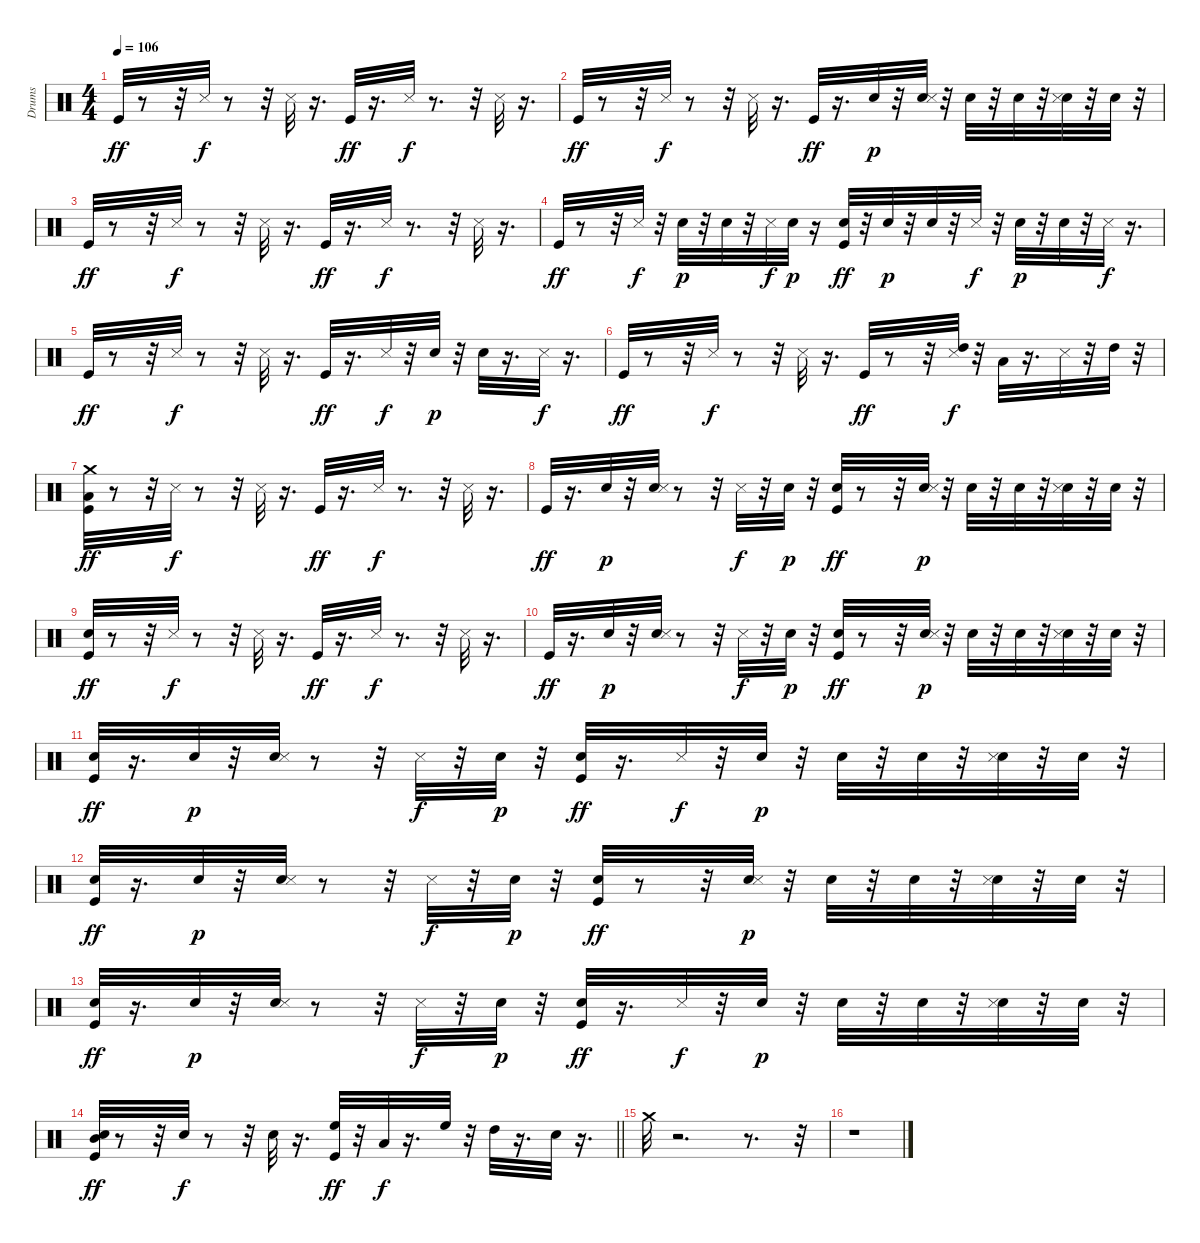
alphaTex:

\track ("Drums" "Drums") {instrument percussion}
\staff {score}
\articulation defaults
\ts (4 4)
\tempo 106
\clef neutral
\ks c "Kick (hit)".32{dy ff}
r.8 r.32 "Snare (side stick) 3".32{dy f} r.8 r.32 "Snare (side stick) 3".32 r.16{d} "Kick (hit)".32{dy ff} r.16{d} "Snare (side stick) 3".32{dy f} r.8{d} r.32 "Snare (side stick) 3".32 r.16{d} |
"Kick (hit)".32{dy ff} r.8 r.32 "Snare (side stick) 3".32{dy f} r.8 r.32 "Snare (side stick) 3".32 r.16{d} "Kick (hit)".32{dy ff} r.16{d} "Snare (hit) 2".32{dy p} r.32 ("Snare (hit) 2" "Snare (side stick) 3").32 r.32 "Snare (hit) 2".32 r.32 "Snare (hit) 2".32 r.32 ("Snare (hit) 2" "Snare (side stick) 3").32 r.32 "Snare (hit) 2".32 r.32 |
"Kick (hit)".32{dy ff} r.8 r.32 "Snare (side stick) 3".32{dy f} r.8 r.32 "Snare (side stick) 3".32 r.16{d} "Kick (hit)".32{dy ff} r.16{d} "Snare (side stick) 3".32{dy f} r.8{d} r.32 "Snare (side stick) 3".32 r.16{d} |
"Kick (hit)".32{dy ff} r.8 r.32 "Snare (side stick) 3".32{dy f} r.32 "Snare (hit) 2".32{dy p} r.32 "Snare (hit) 2".32 r.32 "Snare (side stick) 3".32{dy f} "Snare (hit) 2".32{dy p} r.16 ("Snare (hit) 2" "Kick (hit)").32{dy ff} r.32 "Snare (hit) 2".32{dy p} r.32 "Snare (hit) 2".32 r.32 "Snare (side stick) 3".32{dy f} r.32 "Snare (hit) 2".32{dy p} r.32 "Snare (hit) 2".32 r.32 "Snare (side stick) 3".32{dy f} r.16{d} |
"Kick (hit)".32{dy ff} r.8 r.32 "Snare (side stick) 3".32{dy f} r.8 r.32 "Snare (side stick) 3".32 r.16{d} "Kick (hit)".32{dy ff} r.16{d} "Snare (side stick) 3".32{dy f} r.32 "Snare (hit) 2".32{dy p} r.32 "Snare (hit) 2".32 r.16{d} "Snare (side stick) 3".32{dy f} r.16{d} |
"Kick (hit)".32{dy ff} r.8 r.32 "Snare (side stick) 3".32{dy f} r.8 r.32 "Snare (side stick) 3".32 r.16{d} "Kick (hit)".32{dy ff} r.8 r.32 ("High Tom (hit)" "Snare (side stick) 3").32{dy f} r.32 "Low Tom (hit)".32 r.16{d} "Snare (side stick) 3".32 r.32 "High Tom (hit)".32 r.32 |
("Crash medium (hit)" "Low Tom (hit)" "Kick (hit)").32{dy ff} r.8 r.32 "Snare (side stick) 3".32{dy f} r.8 r.32 "Snare (side stick) 3".32 r.16{d} "Kick (hit)".32{dy ff} r.16{d} "Snare (side stick) 3".32{dy f} r.8{d} r.32 "Snare (side stick) 3".32 r.16{d} |
"Kick (hit)".32{dy ff} r.16{d} "Snare (hit) 2".32{dy p} r.32 ("Snare (hit) 2" "Snare (side stick) 3").32 r.8 r.32 "Snare (side stick) 3".32{dy f} r.32 "Snare (hit) 2".32{dy p} r.32 ("Snare (hit) 2" "Kick (hit)").32{dy ff} r.8 r.32 ("Snare (hit) 2" "Snare (side stick) 3").32{dy p} r.32 "Snare (hit) 2".32 r.32 "Snare (hit) 2".32 r.32 ("Snare (hit) 2" "Snare (side stick) 3").32 r.32 "Snare (hit) 2".32 r.32 |
("Snare (hit) 2" "Kick (hit)").32{dy ff} r.8 r.32 "Snare (side stick) 3".32{dy f} r.8 r.32 "Snare (side stick) 3".32 r.16{d} "Kick (hit)".32{dy ff} r.16{d} "Snare (side stick) 3".32{dy f} r.8{d} r.32 "Snare (side stick) 3".32 r.16{d} |
"Kick (hit)".32{dy ff} r.16{d} "Snare (hit) 2".32{dy p} r.32 ("Snare (hit) 2" "Snare (side stick) 3").32 r.8 r.32 "Snare (side stick) 3".32{dy f} r.32 "Snare (hit) 2".32{dy p} r.32 ("Snare (hit) 2" "Kick (hit)").32{dy ff} r.8 r.32 ("Snare (hit) 2" "Snare (side stick) 3").32{dy p} r.32 "Snare (hit) 2".32 r.32 "Snare (hit) 2".32 r.32 ("Snare (hit) 2" "Snare (side stick) 3").32 r.32 "Snare (hit) 2".32 r.32 |
("Snare (hit) 2" "Kick (hit)").32{dy ff} r.16{d} "Snare (hit) 2".32{dy p} r.32 ("Snare (hit) 2" "Snare (side stick) 3").32 r.8 r.32 "Snare (side stick) 3".32{dy f} r.32 "Snare (hit) 2".32{dy p} r.32 ("Snare (hit) 2" "Kick (hit)").32{dy ff} r.16{d} "Snare (side stick) 3".32{dy f} r.32 "Snare (hit) 2".32{dy p} r.32 "Snare (hit) 2".32 r.32 "Snare (hit) 2".32 r.32 ("Snare (hit) 2" "Snare (side stick) 3").32 r.32 "Snare (hit) 2".32 r.32 |
("Snare (hit) 2" "Kick (hit)").32{dy ff} r.16{d} "Snare (hit) 2".32{dy p} r.32 ("Snare (hit) 2" "Snare (side stick) 3").32 r.8 r.32 "Snare (side stick) 3".32{dy f} r.32 "Snare (hit) 2".32{dy p} r.32 ("Snare (hit) 2" "Kick (hit)").32{dy ff} r.8 r.32 ("Snare (hit) 2" "Snare (side stick) 3").32{dy p} r.32 "Snare (hit) 2".32 r.32 "Snare (hit) 2".32 r.32 ("Snare (hit) 2" "Snare (side stick) 3").32 r.32 "Snare (hit) 2".32 r.32 |
("Snare (hit) 2" "Kick (hit)").32{dy ff} r.16{d} "Snare (hit) 2".32{dy p} r.32 ("Snare (hit) 2" "Snare (side stick) 3").32 r.8 r.32 "Snare (side stick) 3".32{dy f} r.32 "Snare (hit) 2".32{dy p} r.32 ("Snare (hit) 2" "Kick (hit)").32{dy ff} r.16{d} "Snare (side stick) 3".32{dy f} r.32 "Snare (hit) 2".32{dy p} r.32 "Snare (hit) 2".32 r.32 "Snare (hit) 2".32 r.32 ("Snare (hit) 2" "Snare (side stick) 3").32 r.32 "Snare (hit) 2".32 r.32 |
\barLineRight lightlight
("Snare (hit) 2" "Mid Tom (hit)" "Kick (hit)").32{dy ff} r.8 r.32 "Snare (hit) 2".32{dy f} r.8 r.32 "Snare (hit) 2".32 r.16{d} ("High Floor Tom (hit)" "Kick (hit)").32{dy ff} r.32 "Low Floor Tom (hit)".32{dy f} r.16{d} "High Floor Tom (hit)".32 r.32 "High Tom (hit)".32 r.16{d} "Snare (hit) 2".32 r.16{d} |
"Crash medium (hit)".32 r.2{d} r.8{d} r.32 |
r.1
